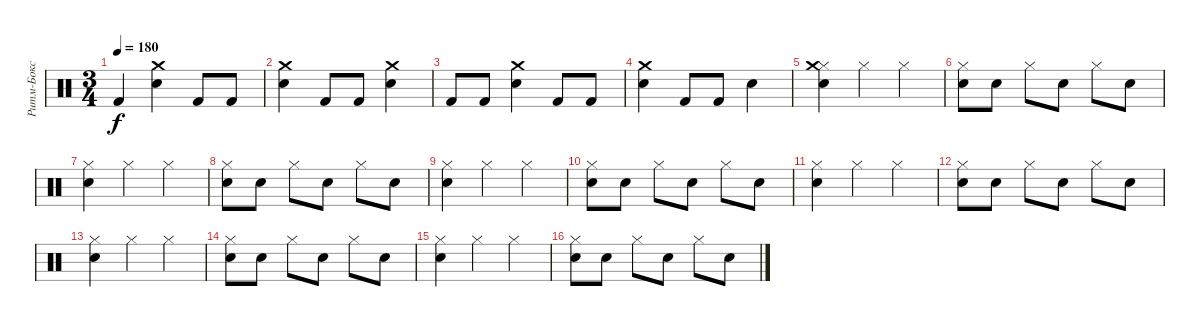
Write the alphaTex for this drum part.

\track ("Ритм-Бокс" "Ритм-Бокс") {instrument percussion}
\staff {score}
\articulation defaults
\ts (3 4)
\tempo 180
\clef neutral
\ks c "Kick (hit) 2".4{dy f}
("Crash medium (hit)" "Snare (hit) 2").4 "Kick (hit) 2".8 "Kick (hit) 2".8 |
("Crash medium (hit)" "Snare (hit) 2").4 "Kick (hit) 2".8 "Kick (hit) 2".8 ("Crash medium (hit)" "Snare (hit) 2").4 |
"Kick (hit) 2".8 "Kick (hit) 2".8 ("Crash medium (hit)" "Snare (hit) 2").4 "Kick (hit) 2".8 "Kick (hit) 2".8 |
("Crash medium (hit)" "Snare (hit) 2").4 "Kick (hit) 2".8 "Kick (hit) 2".8 "Snare (hit) 2".4 |
("Hi-Hat (closed)" "Electric Snare (hit)" "Crash medium (hit)").4 "Hi-Hat (closed)".4 "Hi-Hat (closed)".4 |
("Hi-Hat (closed)" "Electric Snare (hit)").8 "Electric Snare (hit)".8 "Hi-Hat (closed)".8 "Electric Snare (hit)".8 "Hi-Hat (closed)".8 "Electric Snare (hit)".8 |
("Hi-Hat (closed)" "Electric Snare (hit)").4 "Hi-Hat (closed)".4 "Hi-Hat (closed)".4 |
("Hi-Hat (closed)" "Electric Snare (hit)").8 "Electric Snare (hit)".8 "Hi-Hat (closed)".8 "Electric Snare (hit)".8 "Hi-Hat (closed)".8 "Electric Snare (hit)".8 |
("Hi-Hat (closed)" "Electric Snare (hit)").4 "Hi-Hat (closed)".4 "Hi-Hat (closed)".4 |
("Hi-Hat (closed)" "Electric Snare (hit)").8 "Electric Snare (hit)".8 "Hi-Hat (closed)".8 "Electric Snare (hit)".8 "Hi-Hat (closed)".8 "Electric Snare (hit)".8 |
("Hi-Hat (closed)" "Electric Snare (hit)").4 "Hi-Hat (closed)".4 "Hi-Hat (closed)".4 |
("Hi-Hat (closed)" "Electric Snare (hit)").8 "Electric Snare (hit)".8 "Hi-Hat (closed)".8 "Electric Snare (hit)".8 "Hi-Hat (closed)".8 "Electric Snare (hit)".8 |
("Hi-Hat (closed)" "Electric Snare (hit)").4 "Hi-Hat (closed)".4 "Hi-Hat (closed)".4 |
("Hi-Hat (closed)" "Electric Snare (hit)").8 "Electric Snare (hit)".8 "Hi-Hat (closed)".8 "Electric Snare (hit)".8 "Hi-Hat (closed)".8 "Electric Snare (hit)".8 |
("Hi-Hat (closed)" "Electric Snare (hit)").4 "Hi-Hat (closed)".4 "Hi-Hat (closed)".4 |
("Hi-Hat (closed)" "Electric Snare (hit)").8 "Electric Snare (hit)".8 "Hi-Hat (closed)".8 "Electric Snare (hit)".8 "Hi-Hat (closed)".8 "Electric Snare (hit)".8
